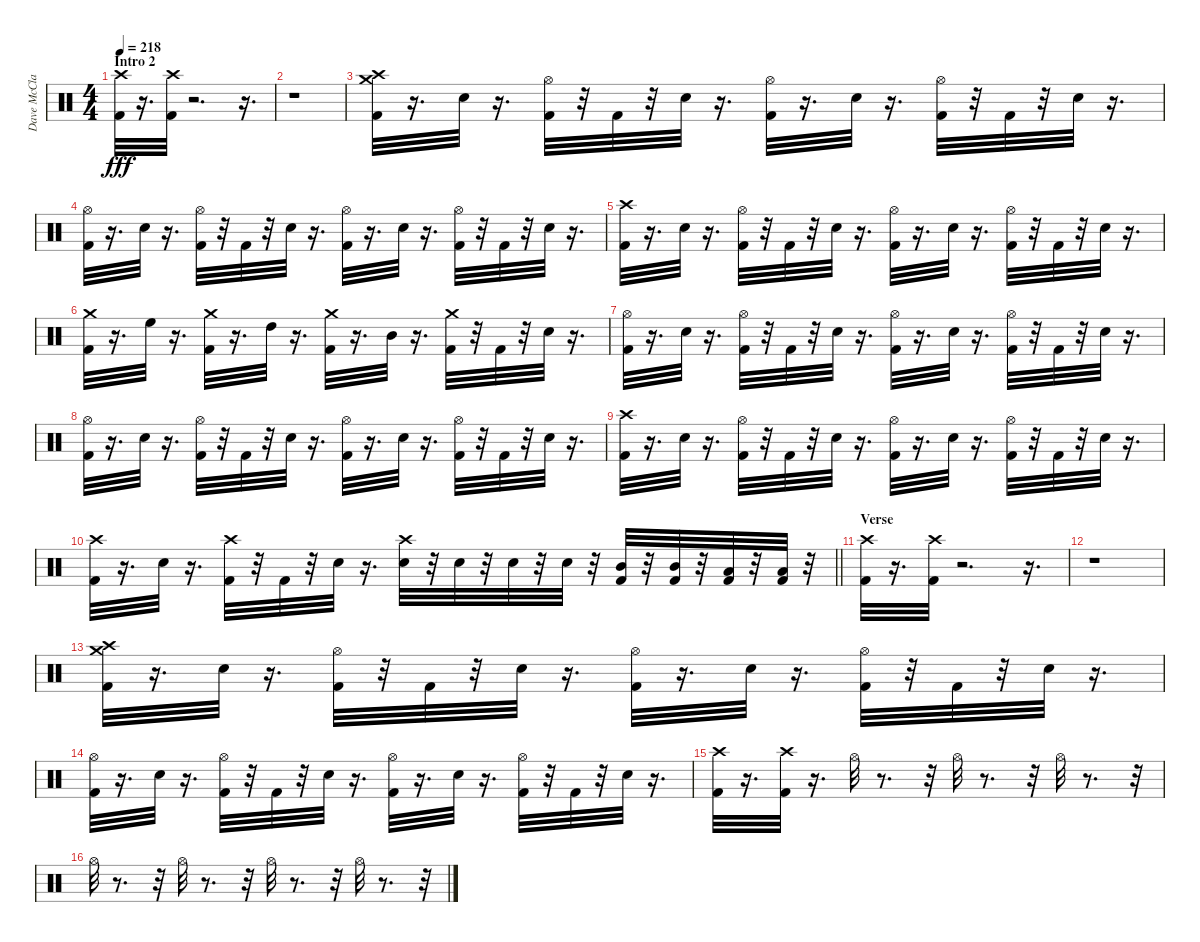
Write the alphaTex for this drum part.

\track ("Dave McClain" "Dave McCla") {instrument percussion}
\staff {score}
\articulation defaults
\ts (4 4)
\section ("" "Intro 2")
\tempo 218
\clef neutral
\ks c
("Crash high (hit)" "Kick (hit) 2").32{dy fff} r.16{d} ("Crash high (hit)" "Kick (hit) 2").32 r.2{d} r.16{d} |
r.1 |
("Crash medium (hit)" "Crash high (hit)" "Kick (hit) 2").32 r.16{d} "Snare (hit) 2".32 r.16{d} ("Kick (hit) 2" "Hi-Hat (open)").32 r.32 "Kick (hit) 2".32 r.32 "Snare (hit) 2".32 r.16{d} ("Hi-Hat (open)" "Kick (hit) 2").32 r.16{d} "Snare (hit) 2".32 r.16{d} ("Hi-Hat (open)" "Kick (hit) 2").32 r.32 "Kick (hit) 2".32 r.32 "Snare (hit) 2".32 r.16{d} |
("Hi-Hat (open)" "Kick (hit) 2").32 r.16{d} "Snare (hit) 2".32 r.16{d} ("Hi-Hat (open)" "Kick (hit) 2").32 r.32 "Kick (hit) 2".32 r.32 "Snare (hit) 2".32 r.16{d} ("Hi-Hat (open)" "Kick (hit) 2").32 r.16{d} "Snare (hit) 2".32 r.16{d} ("Hi-Hat (open)" "Kick (hit) 2").32 r.32 "Kick (hit) 2".32 r.32 "Snare (hit) 2".32 r.16{d} |
("Crash high (hit)" "Kick (hit) 2").32 r.16{d} "Snare (hit) 2".32 r.16{d} ("Hi-Hat (open)" "Kick (hit) 2").32 r.32 "Kick (hit) 2".32 r.32 "Snare (hit) 2".32 r.16{d} ("Hi-Hat (open)" "Kick (hit) 2").32 r.16{d} "Snare (hit) 2".32 r.16{d} ("Hi-Hat (open)" "Kick (hit) 2").32 r.32 "Kick (hit) 2".32 r.32 "Snare (hit) 2".32 r.16{d} |
("Crash medium (hit)" "Kick (hit) 2").32 r.16{d} "High Floor Tom (hit)".32 r.16{d} ("Kick (hit) 2" "Crash medium (hit)").32 r.16{d} "High Tom (hit)".32 r.16{d} ("Kick (hit) 2" "Crash medium (hit)").32 r.16{d} "Mid Tom (hit)".32 r.16{d} ("Kick (hit) 2" "Crash medium (hit)").32 r.32 "Kick (hit) 2".32 r.32 "Snare (hit) 2".32 r.16{d} |
("Hi-Hat (open)" "Kick (hit) 2").32 r.16{d} "Snare (hit) 2".32 r.16{d} ("Kick (hit) 2" "Hi-Hat (open)").32 r.32 "Kick (hit) 2".32 r.32 "Snare (hit) 2".32 r.16{d} ("Hi-Hat (open)" "Kick (hit) 2").32 r.16{d} "Snare (hit) 2".32 r.16{d} ("Hi-Hat (open)" "Kick (hit) 2").32 r.32 "Kick (hit) 2".32 r.32 "Snare (hit) 2".32 r.16{d} |
("Hi-Hat (open)" "Kick (hit) 2").32 r.16{d} "Snare (hit) 2".32 r.16{d} ("Hi-Hat (open)" "Kick (hit) 2").32 r.32 "Kick (hit) 2".32 r.32 "Snare (hit) 2".32 r.16{d} ("Hi-Hat (open)" "Kick (hit) 2").32 r.16{d} "Snare (hit) 2".32 r.16{d} ("Hi-Hat (open)" "Kick (hit) 2").32 r.32 "Kick (hit) 2".32 r.32 "Snare (hit) 2".32 r.16{d} |
("Crash high (hit)" "Kick (hit) 2").32 r.16{d} "Snare (hit) 2".32 r.16{d} ("Hi-Hat (open)" "Kick (hit) 2").32 r.32 "Kick (hit) 2".32 r.32 "Snare (hit) 2".32 r.16{d} ("Hi-Hat (open)" "Kick (hit) 2").32 r.16{d} "Snare (hit) 2".32 r.16{d} ("Hi-Hat (open)" "Kick (hit) 2").32 r.32 "Kick (hit) 2".32 r.32 "Snare (hit) 2".32 r.16{d} |
\barLineRight lightlight
("Crash high (hit)" "Kick (hit) 2").32 r.16{d} "Snare (hit) 2".32 r.16{d} ("Crash high (hit)" "Kick (hit) 2").32 r.32 "Kick (hit) 2".32 r.32 "Snare (hit) 2".32 r.16{d} ("Crash high (hit)" "Snare (hit) 2").32 r.32 "Snare (hit) 2".32 r.32 "Snare (hit) 2".32 r.32 "Snare (hit) 2".32 r.32 ("Mid Tom (hit)" "Kick (hit) 2").32 r.32 ("Mid Tom (hit)" "Kick (hit) 2").32 r.32 ("Low Tom (hit)" "Kick (hit) 2").32 r.32 ("Low Tom (hit)" "Kick (hit) 2").32 r.32 |
\section ("" "Verse")
("Crash high (hit)" "Kick (hit) 2").32 r.16{d} ("Crash high (hit)" "Kick (hit) 2").32 r.2{d} r.16{d} |
r.1 |
("Crash medium (hit)" "Crash high (hit)" "Kick (hit) 2").32 r.16{d} "Snare (hit) 2".32 r.16{d} ("Kick (hit) 2" "Hi-Hat (open)").32 r.32 "Kick (hit) 2".32 r.32 "Snare (hit) 2".32 r.16{d} ("Hi-Hat (open)" "Kick (hit) 2").32 r.16{d} "Snare (hit) 2".32 r.16{d} ("Hi-Hat (open)" "Kick (hit) 2").32 r.32 "Kick (hit) 2".32 r.32 "Snare (hit) 2".32 r.16{d} |
("Hi-Hat (open)" "Kick (hit) 2").32 r.16{d} "Snare (hit) 2".32 r.16{d} ("Hi-Hat (open)" "Kick (hit) 2").32 r.32 "Kick (hit) 2".32 r.32 "Snare (hit) 2".32 r.16{d} ("Hi-Hat (open)" "Kick (hit) 2").32 r.16{d} "Snare (hit) 2".32 r.16{d} ("Hi-Hat (open)" "Kick (hit) 2").32 r.32 "Kick (hit) 2".32 r.32 "Snare (hit) 2".32 r.16{d} |
("Crash high (hit)" "Kick (hit) 2").32 r.16{d} ("Crash high (hit)" "Kick (hit) 2").32 r.16{d} "Hi-Hat (open)".32 r.8{d} r.32 "Hi-Hat (open)".32 r.8{d} r.32 "Hi-Hat (open)".32 r.8{d} r.32 |
"Hi-Hat (open)".32 r.8{d} r.32 "Hi-Hat (open)".32 r.8{d} r.32 "Hi-Hat (open)".32 r.8{d} r.32 "Hi-Hat (open)".32 r.8{d} r.32
